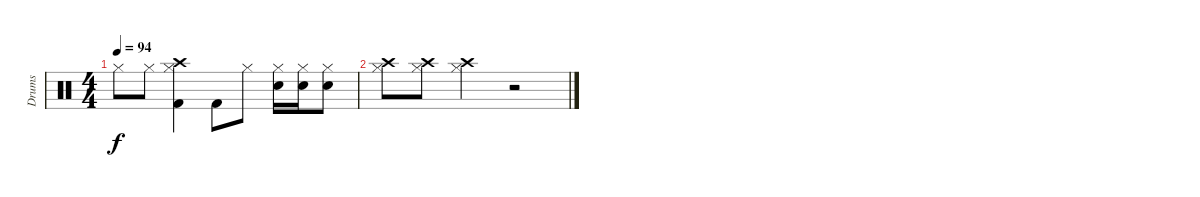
\track ("Drums" "Drums") {instrument percussion}
\staff {score}
\articulation defaults
\ts (4 4)
\tempo 94
\clef neutral
\ks c "Hi-Hat (closed)".8{dy f} "Hi-Hat (closed)".8
("Crash high (hit)" "Hi-Hat (closed)" "Kick (hit) 2").4 "Kick (hit) 2".8 "Hi-Hat (closed)".8 ("Hi-Hat (closed)" "Electric Snare (hit)").16 ("Hi-Hat (closed)" "Electric Snare (hit)").16 ("Hi-Hat (closed)" "Electric Snare (hit)").8 |
("Crash high (hit)" "Hi-Hat (closed)").8 ("Crash high (hit)" "Hi-Hat (closed)").8 ("Crash high (hit)" "Hi-Hat (closed)").4 r.2
